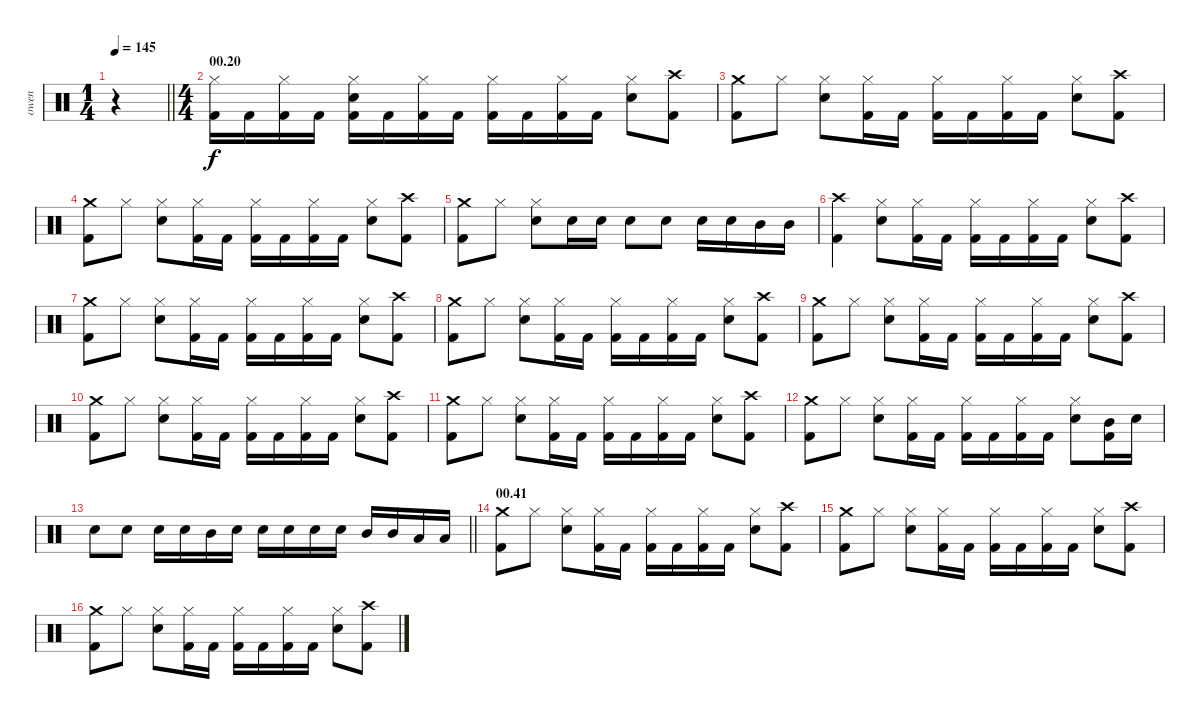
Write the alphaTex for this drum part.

\track ("owen" "owen") {instrument percussion}
\staff {score}
\articulation defaults
\ts (1 4)
\tempo 145
\clef neutral
\barLineRight lightlight
\ks c
r.4{dy f} |
\ts (4 4)
\section ("" "00.20")
("Hi-Hat (closed)" "Kick (hit) 2").16 "Kick (hit) 2".16 ("Hi-Hat (closed)" "Kick (hit) 2").16 "Kick (hit) 2".16 ("Hi-Hat (closed)" "Snare (hit) 2" "Kick (hit) 2").16 "Kick (hit) 2".16 ("Hi-Hat (closed)" "Kick (hit) 2").16 "Kick (hit) 2".16 ("Hi-Hat (closed)" "Kick (hit) 2").16 "Kick (hit) 2".16 ("Hi-Hat (closed)" "Kick (hit) 2").16 "Kick (hit) 2".16 ("Hi-Hat (closed)" "Snare (hit) 2").8 ("Crash high (hit)" "Kick (hit) 2").8 |
("Crash medium (hit)" "Kick (hit) 2").8 "Hi-Hat (closed)".8 ("Hi-Hat (closed)" "Snare (hit) 2").8 ("Hi-Hat (closed)" "Kick (hit) 2").16 "Kick (hit) 2".16 ("Hi-Hat (closed)" "Kick (hit) 2").16 "Kick (hit) 2".16 ("Hi-Hat (closed)" "Kick (hit) 2").16 "Kick (hit) 2".16 ("Hi-Hat (closed)" "Snare (hit) 2").8 ("Crash high (hit)" "Kick (hit) 2").8 |
("Crash medium (hit)" "Kick (hit) 2").8 "Hi-Hat (closed)".8 ("Hi-Hat (closed)" "Snare (hit) 2").8 ("Hi-Hat (closed)" "Kick (hit) 2").16 "Kick (hit) 2".16 ("Hi-Hat (closed)" "Kick (hit) 2").16 "Kick (hit) 2".16 ("Hi-Hat (closed)" "Kick (hit) 2").16 "Kick (hit) 2".16 ("Hi-Hat (closed)" "Snare (hit) 2").8 ("Crash high (hit)" "Kick (hit) 2").8 |
("Crash medium (hit)" "Kick (hit) 2").8 "Hi-Hat (closed)".8 ("Hi-Hat (closed)" "Snare (hit) 2").8 "Snare (hit) 2".16 "Snare (hit) 2".16 "Snare (hit) 2".8 "Snare (hit) 2".8 "Snare (hit) 2".16 "Snare (hit) 2".16 "Mid Tom (hit)".16 "Mid Tom (hit)".16 |
("Crash high (hit)" "Kick (hit) 2").4 ("Hi-Hat (closed)" "Snare (hit) 2").8 ("Hi-Hat (closed)" "Kick (hit) 2").16 "Kick (hit) 2".16 ("Hi-Hat (closed)" "Kick (hit) 2").16 "Kick (hit) 2".16 ("Hi-Hat (closed)" "Kick (hit) 2").16 "Kick (hit) 2".16 ("Hi-Hat (closed)" "Snare (hit) 2").8 ("Crash high (hit)" "Kick (hit) 2").8 |
("Crash medium (hit)" "Kick (hit) 2").8 "Hi-Hat (closed)".8 ("Hi-Hat (closed)" "Snare (hit) 2").8 ("Hi-Hat (closed)" "Kick (hit) 2").16 "Kick (hit) 2".16 ("Hi-Hat (closed)" "Kick (hit) 2").16 "Kick (hit) 2".16 ("Hi-Hat (closed)" "Kick (hit) 2").16 "Kick (hit) 2".16 ("Hi-Hat (closed)" "Snare (hit) 2").8 ("Crash high (hit)" "Kick (hit) 2").8 |
("Crash medium (hit)" "Kick (hit) 2").8 "Hi-Hat (closed)".8 ("Hi-Hat (closed)" "Snare (hit) 2").8 ("Hi-Hat (closed)" "Kick (hit) 2").16 "Kick (hit) 2".16 ("Hi-Hat (closed)" "Kick (hit) 2").16 "Kick (hit) 2".16 ("Hi-Hat (closed)" "Kick (hit) 2").16 "Kick (hit) 2".16 ("Hi-Hat (closed)" "Snare (hit) 2").8 ("Crash high (hit)" "Kick (hit) 2").8 |
("Crash medium (hit)" "Kick (hit) 2").8 "Hi-Hat (closed)".8 ("Hi-Hat (closed)" "Snare (hit) 2").8 ("Hi-Hat (closed)" "Kick (hit) 2").16 "Kick (hit) 2".16 ("Hi-Hat (closed)" "Kick (hit) 2").16 "Kick (hit) 2".16 ("Hi-Hat (closed)" "Kick (hit) 2").16 "Kick (hit) 2".16 ("Hi-Hat (closed)" "Snare (hit) 2").8 ("Crash high (hit)" "Kick (hit) 2").8 |
("Crash medium (hit)" "Kick (hit) 2").8 "Hi-Hat (closed)".8 ("Hi-Hat (closed)" "Snare (hit) 2").8 ("Hi-Hat (closed)" "Kick (hit) 2").16 "Kick (hit) 2".16 ("Hi-Hat (closed)" "Kick (hit) 2").16 "Kick (hit) 2".16 ("Hi-Hat (closed)" "Kick (hit) 2").16 "Kick (hit) 2".16 ("Hi-Hat (closed)" "Snare (hit) 2").8 ("Crash high (hit)" "Kick (hit) 2").8 |
("Crash medium (hit)" "Kick (hit) 2").8 "Hi-Hat (closed)".8 ("Hi-Hat (closed)" "Snare (hit) 2").8 ("Hi-Hat (closed)" "Kick (hit) 2").16 "Kick (hit) 2".16 ("Hi-Hat (closed)" "Kick (hit) 2").16 "Kick (hit) 2".16 ("Hi-Hat (closed)" "Kick (hit) 2").16 "Kick (hit) 2".16 ("Hi-Hat (closed)" "Snare (hit) 2").8 ("Crash high (hit)" "Kick (hit) 2").8 |
("Crash medium (hit)" "Kick (hit) 2").8 "Hi-Hat (closed)".8 ("Hi-Hat (closed)" "Snare (hit) 2").8 ("Hi-Hat (closed)" "Kick (hit) 2").16 "Kick (hit) 2".16 ("Hi-Hat (closed)" "Kick (hit) 2").16 "Kick (hit) 2".16 ("Hi-Hat (closed)" "Kick (hit) 2").16 "Kick (hit) 2".16 ("Hi-Hat (closed)" "Snare (hit) 2").8 ("Mid Tom (hit)" "Kick (hit) 2").16 "Snare (hit) 2".16 |
\barLineRight lightlight "Snare (hit) 2".8 "Snare (hit) 2".8 "Snare (hit) 2".16 "Snare (hit) 2".16 "Mid Tom (hit)".16 "Snare (hit) 2".16 "Snare (hit) 2".16 "Snare (hit) 2".16 "Snare (hit) 2".16 "Snare (hit) 2".16 "Mid Tom (hit)".16 "Mid Tom (hit)".16 "Low Tom (hit)".16 "Low Tom (hit)".16
|
\section ("" "00.41")
("Crash medium (hit)" "Kick (hit) 2").8 "Hi-Hat (closed)".8 ("Hi-Hat (closed)" "Snare (hit) 2").8 ("Hi-Hat (closed)" "Kick (hit) 2").16 "Kick (hit) 2".16 ("Hi-Hat (closed)" "Kick (hit) 2").16 "Kick (hit) 2".16 ("Hi-Hat (closed)" "Kick (hit) 2").16 "Kick (hit) 2".16 ("Hi-Hat (closed)" "Snare (hit) 2").8 ("Crash high (hit)" "Kick (hit) 2").8 |
("Crash medium (hit)" "Kick (hit) 2").8 "Hi-Hat (closed)".8 ("Hi-Hat (closed)" "Snare (hit) 2").8 ("Hi-Hat (closed)" "Kick (hit) 2").16 "Kick (hit) 2".16 ("Hi-Hat (closed)" "Kick (hit) 2").16 "Kick (hit) 2".16 ("Hi-Hat (closed)" "Kick (hit) 2").16 "Kick (hit) 2".16 ("Hi-Hat (closed)" "Snare (hit) 2").8 ("Crash high (hit)" "Kick (hit) 2").8 |
("Crash medium (hit)" "Kick (hit) 2").8 "Hi-Hat (closed)".8 ("Hi-Hat (closed)" "Snare (hit) 2").8 ("Hi-Hat (closed)" "Kick (hit) 2").16 "Kick (hit) 2".16 ("Hi-Hat (closed)" "Kick (hit) 2").16 "Kick (hit) 2".16 ("Hi-Hat (closed)" "Kick (hit) 2").16 "Kick (hit) 2".16 ("Hi-Hat (closed)" "Snare (hit) 2").8 ("Crash high (hit)" "Kick (hit) 2").8
